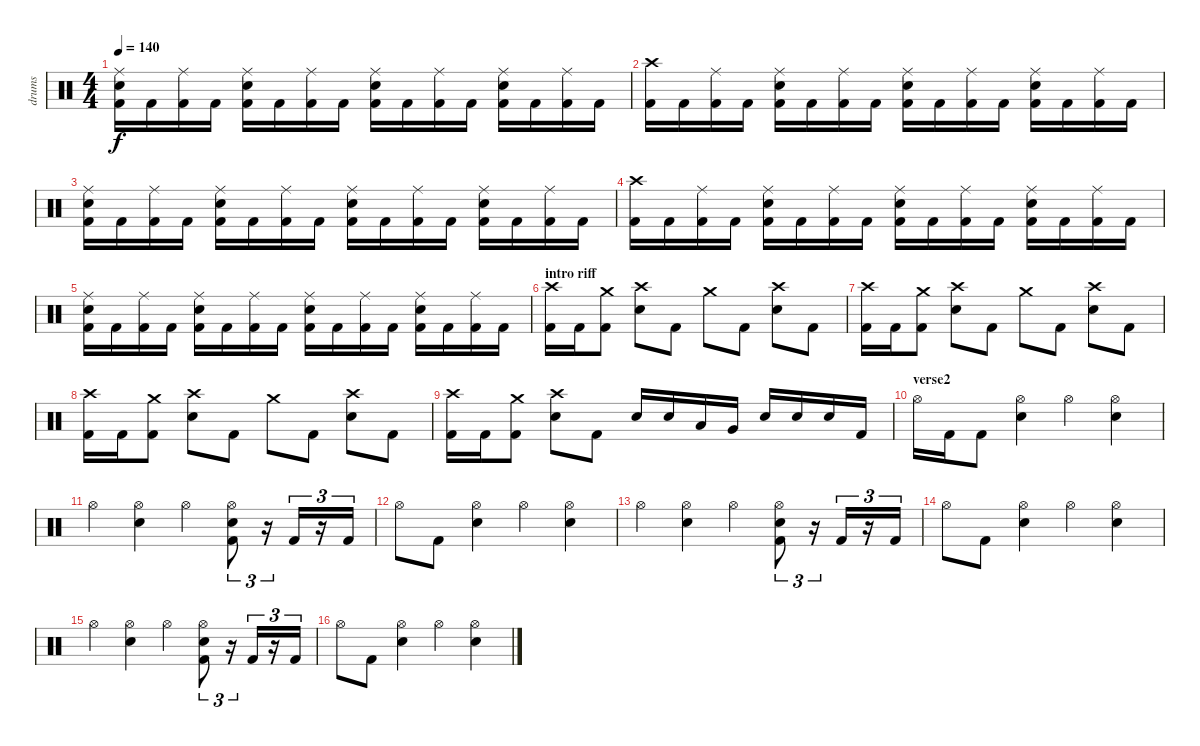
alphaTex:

\track ("drums" "drums") {instrument percussion}
\staff {score}
\articulation defaults
\ts (4 4)
\tempo 140
\clef neutral
\ks c
("Ride (middle)" "Electric Snare (hit)" "Kick (hit) 2").16{dy f} "Kick (hit) 2".16 ("Ride (middle)" "Kick (hit) 2").16 "Kick (hit) 2".16 ("Ride (middle)" "Electric Snare (hit)" "Kick (hit) 2").16 "Kick (hit) 2".16 ("Ride (middle)" "Kick (hit) 2").16 "Kick (hit) 2".16 ("Ride (middle)" "Electric Snare (hit)" "Kick (hit) 2").16 "Kick (hit) 2".16 ("Ride (middle)" "Kick (hit) 2").16 "Kick (hit) 2".16 ("Ride (middle)" "Electric Snare (hit)" "Kick (hit) 2").16 "Kick (hit) 2".16 ("Ride (middle)" "Kick (hit) 2").16 "Kick (hit) 2".16 |
("Crash high (hit)" "Kick (hit) 2").16 "Kick (hit) 2".16 ("Ride (middle)" "Kick (hit) 2").16 "Kick (hit) 2".16 ("Ride (middle)" "Electric Snare (hit)" "Kick (hit) 2").16 "Kick (hit) 2".16 ("Ride (middle)" "Kick (hit) 2").16 "Kick (hit) 2".16 ("Ride (middle)" "Electric Snare (hit)" "Kick (hit) 2").16 "Kick (hit) 2".16 ("Ride (middle)" "Kick (hit) 2").16 "Kick (hit) 2".16 ("Ride (middle)" "Electric Snare (hit)" "Kick (hit) 2").16 "Kick (hit) 2".16 ("Ride (middle)" "Kick (hit) 2").16 "Kick (hit) 2".16 |
("Ride (middle)" "Electric Snare (hit)" "Kick (hit) 2").16 "Kick (hit) 2".16 ("Ride (middle)" "Kick (hit) 2").16 "Kick (hit) 2".16 ("Ride (middle)" "Electric Snare (hit)" "Kick (hit) 2").16 "Kick (hit) 2".16 ("Ride (middle)" "Kick (hit) 2").16 "Kick (hit) 2".16 ("Ride (middle)" "Electric Snare (hit)" "Kick (hit) 2").16 "Kick (hit) 2".16 ("Ride (middle)" "Kick (hit) 2").16 "Kick (hit) 2".16 ("Ride (middle)" "Electric Snare (hit)" "Kick (hit) 2").16 "Kick (hit) 2".16 ("Ride (middle)" "Kick (hit) 2").16 "Kick (hit) 2".16 |
("Crash high (hit)" "Kick (hit) 2").16 "Kick (hit) 2".16 ("Ride (middle)" "Kick (hit) 2").16 "Kick (hit) 2".16 ("Ride (middle)" "Electric Snare (hit)" "Kick (hit) 2").16 "Kick (hit) 2".16 ("Ride (middle)" "Kick (hit) 2").16 "Kick (hit) 2".16 ("Ride (middle)" "Electric Snare (hit)" "Kick (hit) 2").16 "Kick (hit) 2".16 ("Ride (middle)" "Kick (hit) 2").16 "Kick (hit) 2".16 ("Ride (middle)" "Electric Snare (hit)" "Kick (hit) 2").16 "Kick (hit) 2".16 ("Ride (middle)" "Kick (hit) 2").16 "Kick (hit) 2".16 |
("Ride (middle)" "Electric Snare (hit)" "Kick (hit) 2").16 "Kick (hit) 2".16 ("Ride (middle)" "Kick (hit) 2").16 "Kick (hit) 2".16 ("Ride (middle)" "Electric Snare (hit)" "Kick (hit) 2").16 "Kick (hit) 2".16 ("Ride (middle)" "Kick (hit) 2").16 "Kick (hit) 2".16 ("Ride (middle)" "Electric Snare (hit)" "Kick (hit) 2").16 "Kick (hit) 2".16 ("Ride (middle)" "Kick (hit) 2").16 "Kick (hit) 2".16 ("Ride (middle)" "Electric Snare (hit)" "Kick (hit) 2").16 "Kick (hit) 2".16 ("Ride (middle)" "Kick (hit) 2").16 "Kick (hit) 2".16 |
\section ("" "intro riff")
("Crash high (hit)" "Kick (hit) 2").16 "Kick (hit) 2".16 ("Crash medium (hit)" "Kick (hit) 2").8 ("Crash high (hit)" "Electric Snare (hit)").8 "Kick (hit) 2".8 "Crash medium (hit)".8 "Kick (hit) 2".8 ("Crash high (hit)" "Electric Snare (hit)").8 "Kick (hit) 2".8 |
("Crash high (hit)" "Kick (hit) 2").16 "Kick (hit) 2".16 ("Crash medium (hit)" "Kick (hit) 2").8 ("Crash high (hit)" "Electric Snare (hit)").8 "Kick (hit) 2".8 "Crash medium (hit)".8 "Kick (hit) 2".8 ("Crash high (hit)" "Electric Snare (hit)").8 "Kick (hit) 2".8 |
("Crash high (hit)" "Kick (hit) 2").16 "Kick (hit) 2".16 ("Crash medium (hit)" "Kick (hit) 2").8 ("Crash high (hit)" "Electric Snare (hit)").8 "Kick (hit) 2".8 "Crash medium (hit)".8 "Kick (hit) 2".8 ("Crash high (hit)" "Electric Snare (hit)").8 "Kick (hit) 2".8 |
("Crash high (hit)" "Kick (hit) 2").16 "Kick (hit) 2".16 ("Crash medium (hit)" "Kick (hit) 2").8 ("Crash high (hit)" "Electric Snare (hit)").8 "Kick (hit) 2".8 "Electric Snare (hit)".16 "Electric Snare (hit)".16 "Low Tom (hit)".16 "Very Low Tom (hit)".16 "Electric Snare (hit)".16 "Electric Snare (hit)".16 "Electric Snare (hit)".16 "Kick (hit) 2".16 |
\section ("" "verse2")
"Hi-Hat (open)".16 "Kick (hit) 2".16 "Kick (hit) 2".8 ("Hi-Hat (open)" "Electric Snare (hit)").4 "Hi-Hat (open)".4 ("Hi-Hat (open)" "Electric Snare (hit)").4 |
"Hi-Hat (open)".4 ("Hi-Hat (open)" "Electric Snare (hit)").4 "Hi-Hat (open)".4 ("Hi-Hat (open)" "Electric Snare (hit)" "Kick (hit) 2").8{tu (3 2)} r.16{tu (3 2)} "Kick (hit) 2".16{tu (3 2)} r.16{tu (3 2)} "Kick (hit) 2".16{tu (3 2)} |
"Hi-Hat (open)".8 "Kick (hit) 2".8 ("Hi-Hat (open)" "Electric Snare (hit)").4 "Hi-Hat (open)".4 ("Hi-Hat (open)" "Electric Snare (hit)").4 |
"Hi-Hat (open)".4 ("Hi-Hat (open)" "Electric Snare (hit)").4 "Hi-Hat (open)".4 ("Hi-Hat (open)" "Electric Snare (hit)" "Kick (hit) 2").8{tu (3 2)} r.16{tu (3 2)} "Kick (hit) 2".16{tu (3 2)} r.16{tu (3 2)} "Kick (hit) 2".16{tu (3 2)} |
"Hi-Hat (open)".8 "Kick (hit) 2".8 ("Hi-Hat (open)" "Electric Snare (hit)").4 "Hi-Hat (open)".4 ("Hi-Hat (open)" "Electric Snare (hit)").4 |
"Hi-Hat (open)".4 ("Hi-Hat (open)" "Electric Snare (hit)").4 "Hi-Hat (open)".4 ("Hi-Hat (open)" "Electric Snare (hit)" "Kick (hit) 2").8{tu (3 2)} r.16{tu (3 2)} "Kick (hit) 2".16{tu (3 2)} r.16{tu (3 2)} "Kick (hit) 2".16{tu (3 2)} |
"Hi-Hat (open)".8 "Kick (hit) 2".8 ("Hi-Hat (open)" "Electric Snare (hit)").4 "Hi-Hat (open)".4 ("Hi-Hat (open)" "Electric Snare (hit)").4
